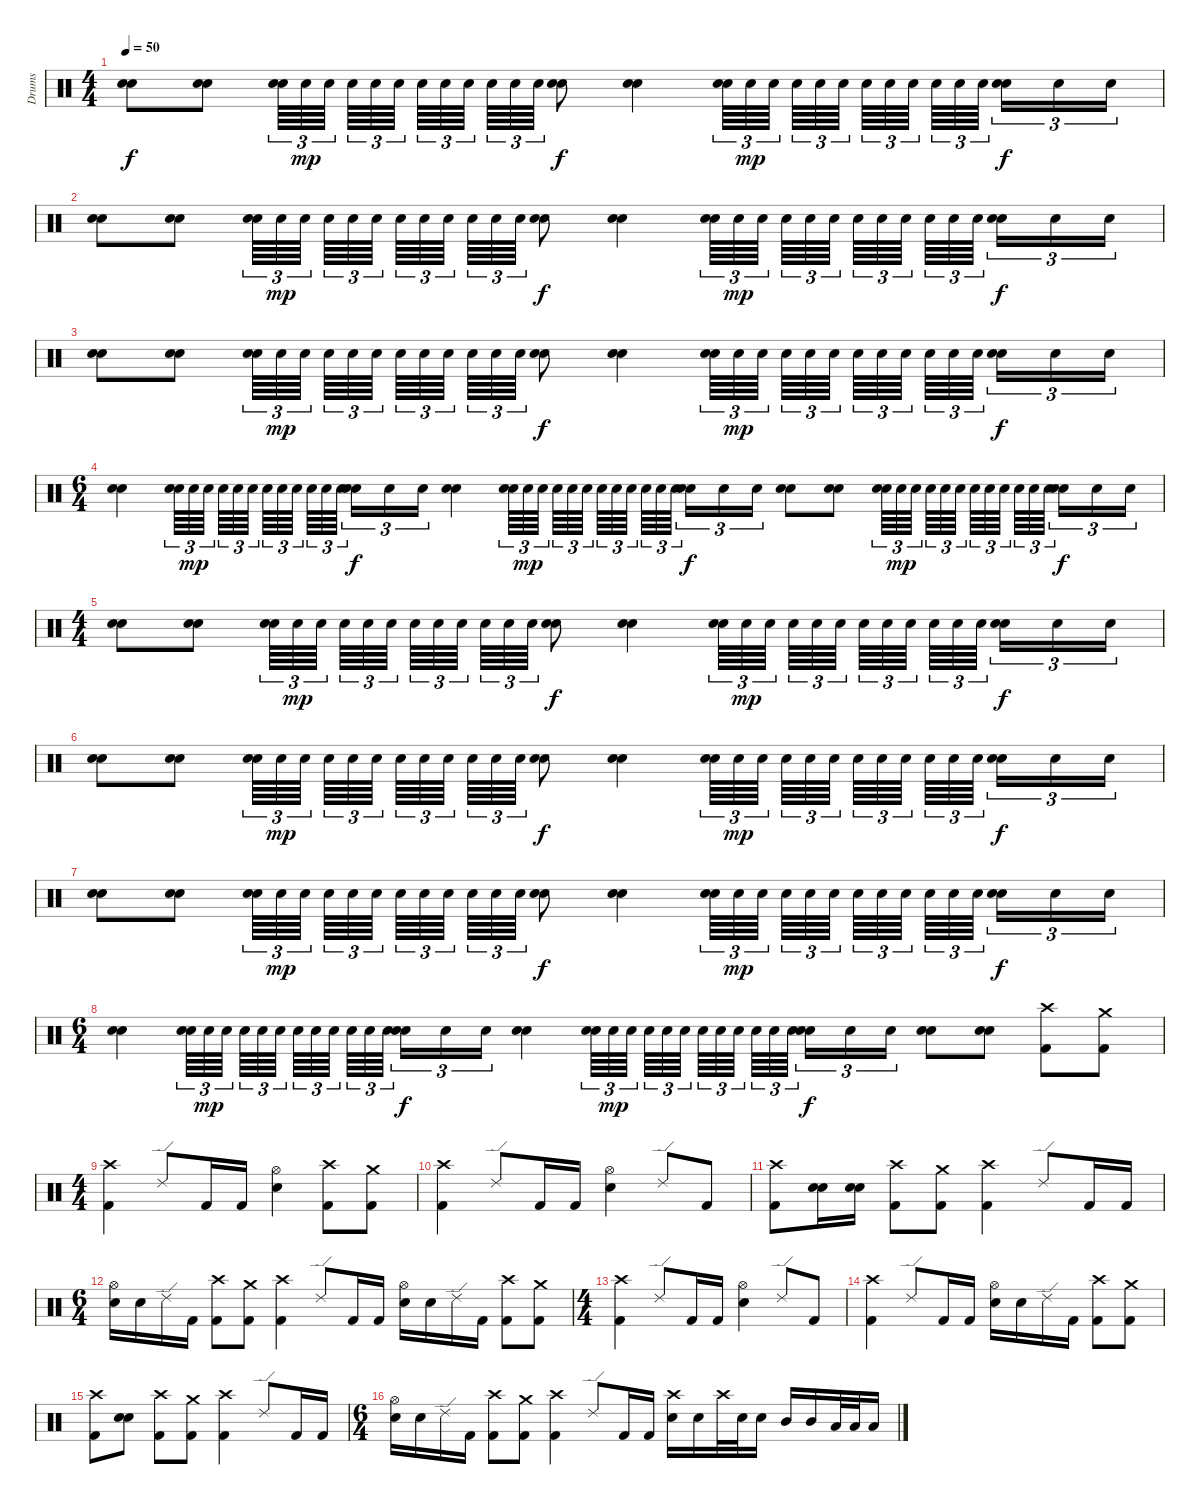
\track ("Drums" "Drums") {instrument percussion}
\staff {score}
\articulation defaults
\ts (4 4)
\tempo 50
\clef neutral
\ks c
("Electric Snare (hit)" "Electric Snare (hit)").8{bu 60 dy f} ("Electric Snare (hit)" "Electric Snare (hit)").8{bu 60} ("Electric Snare (hit)" "Electric Snare (hit)").64{tu (3 2) bu 60} "Electric Snare (hit)".64{tu (3 2) dy mp} "Electric Snare (hit)".64{tu (3 2)} "Electric Snare (hit)".64{tu (3 2)} "Electric Snare (hit)".64{tu (3 2)} "Electric Snare (hit)".64{tu (3 2)} "Electric Snare (hit)".64{tu (3 2)} "Electric Snare (hit)".64{tu (3 2)} "Electric Snare (hit)".64{tu (3 2)} "Electric Snare (hit)".64{tu (3 2)} "Electric Snare (hit)".64{tu (3 2)} "Electric Snare (hit)".64{tu (3 2)} ("Electric Snare (hit)" "Electric Snare (hit)").8{bu 60 dy f} ("Electric Snare (hit)" "Electric Snare (hit)").4{bu 60} ("Electric Snare (hit)" "Electric Snare (hit)").64{tu (3 2) bu 60} "Electric Snare (hit)".64{tu (3 2) dy mp} "Electric Snare (hit)".64{tu (3 2)} "Electric Snare (hit)".64{tu (3 2)} "Electric Snare (hit)".64{tu (3 2)} "Electric Snare (hit)".64{tu (3 2)} "Electric Snare (hit)".64{tu (3 2)} "Electric Snare (hit)".64{tu (3 2)} "Electric Snare (hit)".64{tu (3 2)} "Electric Snare (hit)".64{tu (3 2)} "Electric Snare (hit)".64{tu (3 2)} "Electric Snare (hit)".64{tu (3 2)} ("Electric Snare (hit)" "Electric Snare (hit)").16{tu (3 2) bu 60 dy f} "Electric Snare (hit)".16{tu (3 2)} "Electric Snare (hit)".16{tu (3 2)} |
("Electric Snare (hit)" "Electric Snare (hit)").8{bu 60} ("Electric Snare (hit)" "Electric Snare (hit)").8{bu 60} ("Electric Snare (hit)" "Electric Snare (hit)").64{tu (3 2) bu 60} "Electric Snare (hit)".64{tu (3 2) dy mp} "Electric Snare (hit)".64{tu (3 2)} "Electric Snare (hit)".64{tu (3 2)} "Electric Snare (hit)".64{tu (3 2)} "Electric Snare (hit)".64{tu (3 2)} "Electric Snare (hit)".64{tu (3 2)} "Electric Snare (hit)".64{tu (3 2)} "Electric Snare (hit)".64{tu (3 2)} "Electric Snare (hit)".64{tu (3 2)} "Electric Snare (hit)".64{tu (3 2)} "Electric Snare (hit)".64{tu (3 2)} ("Electric Snare (hit)" "Electric Snare (hit)").8{bu 60 dy f} ("Electric Snare (hit)" "Electric Snare (hit)").4{bu 60} ("Electric Snare (hit)" "Electric Snare (hit)").64{tu (3 2) bu 60} "Electric Snare (hit)".64{tu (3 2) dy mp} "Electric Snare (hit)".64{tu (3 2)} "Electric Snare (hit)".64{tu (3 2)} "Electric Snare (hit)".64{tu (3 2)} "Electric Snare (hit)".64{tu (3 2)} "Electric Snare (hit)".64{tu (3 2)} "Electric Snare (hit)".64{tu (3 2)} "Electric Snare (hit)".64{tu (3 2)} "Electric Snare (hit)".64{tu (3 2)} "Electric Snare (hit)".64{tu (3 2)} "Electric Snare (hit)".64{tu (3 2)} ("Electric Snare (hit)" "Electric Snare (hit)").16{tu (3 2) bu 60 dy f} "Electric Snare (hit)".16{tu (3 2)} "Electric Snare (hit)".16{tu (3 2)} |
("Electric Snare (hit)" "Electric Snare (hit)").8{bu 60} ("Electric Snare (hit)" "Electric Snare (hit)").8{bu 60} ("Electric Snare (hit)" "Electric Snare (hit)").64{tu (3 2) bu 60} "Electric Snare (hit)".64{tu (3 2) dy mp} "Electric Snare (hit)".64{tu (3 2)} "Electric Snare (hit)".64{tu (3 2)} "Electric Snare (hit)".64{tu (3 2)} "Electric Snare (hit)".64{tu (3 2)} "Electric Snare (hit)".64{tu (3 2)} "Electric Snare (hit)".64{tu (3 2)} "Electric Snare (hit)".64{tu (3 2)} "Electric Snare (hit)".64{tu (3 2)} "Electric Snare (hit)".64{tu (3 2)} "Electric Snare (hit)".64{tu (3 2)} ("Electric Snare (hit)" "Electric Snare (hit)").8{bu 60 dy f} ("Electric Snare (hit)" "Electric Snare (hit)").4{bu 60} ("Electric Snare (hit)" "Electric Snare (hit)").64{tu (3 2) bu 60} "Electric Snare (hit)".64{tu (3 2) dy mp} "Electric Snare (hit)".64{tu (3 2)} "Electric Snare (hit)".64{tu (3 2)} "Electric Snare (hit)".64{tu (3 2)} "Electric Snare (hit)".64{tu (3 2)} "Electric Snare (hit)".64{tu (3 2)} "Electric Snare (hit)".64{tu (3 2)} "Electric Snare (hit)".64{tu (3 2)} "Electric Snare (hit)".64{tu (3 2)} "Electric Snare (hit)".64{tu (3 2)} "Electric Snare (hit)".64{tu (3 2)} ("Electric Snare (hit)" "Electric Snare (hit)").16{tu (3 2) bu 60 dy f} "Electric Snare (hit)".16{tu (3 2)} "Electric Snare (hit)".16{tu (3 2)} |
\ts (6 4)
("Electric Snare (hit)" "Electric Snare (hit)").4{bu 60} ("Electric Snare (hit)" "Electric Snare (hit)").64{tu (3 2) bu 60} "Electric Snare (hit)".64{tu (3 2) dy mp} "Electric Snare (hit)".64{tu (3 2)} "Electric Snare (hit)".64{tu (3 2)} "Electric Snare (hit)".64{tu (3 2)} "Electric Snare (hit)".64{tu (3 2)} "Electric Snare (hit)".64{tu (3 2)} "Electric Snare (hit)".64{tu (3 2)} "Electric Snare (hit)".64{tu (3 2)} "Electric Snare (hit)".64{tu (3 2)} "Electric Snare (hit)".64{tu (3 2)} "Electric Snare (hit)".64{tu (3 2)} ("Electric Snare (hit)" "Electric Snare (hit)").16{tu (3 2) bu 60 dy f} "Electric Snare (hit)".16{tu (3 2)} "Electric Snare (hit)".16{tu (3 2)} ("Electric Snare (hit)" "Electric Snare (hit)").4{bu 60} ("Electric Snare (hit)" "Electric Snare (hit)").64{tu (3 2) bu 60} "Electric Snare (hit)".64{tu (3 2) dy mp} "Electric Snare (hit)".64{tu (3 2)} "Electric Snare (hit)".64{tu (3 2)} "Electric Snare (hit)".64{tu (3 2)} "Electric Snare (hit)".64{tu (3 2)} "Electric Snare (hit)".64{tu (3 2)} "Electric Snare (hit)".64{tu (3 2)} "Electric Snare (hit)".64{tu (3 2)} "Electric Snare (hit)".64{tu (3 2)} "Electric Snare (hit)".64{tu (3 2)} "Electric Snare (hit)".64{tu (3 2)} ("Electric Snare (hit)" "Electric Snare (hit)").16{tu (3 2) bu 60 dy f} "Electric Snare (hit)".16{tu (3 2)} "Electric Snare (hit)".16{tu (3 2)} ("Electric Snare (hit)" "Electric Snare (hit)").8{bu 60} ("Electric Snare (hit)" "Electric Snare (hit)").8{bu 60} ("Electric Snare (hit)" "Electric Snare (hit)").64{tu (3 2) bu 60} "Electric Snare (hit)".64{tu (3 2) dy mp} "Electric Snare (hit)".64{tu (3 2)} "Electric Snare (hit)".64{tu (3 2)} "Electric Snare (hit)".64{tu (3 2)} "Electric Snare (hit)".64{tu (3 2)} "Electric Snare (hit)".64{tu (3 2)} "Electric Snare (hit)".64{tu (3 2)} "Electric Snare (hit)".64{tu (3 2)} "Electric Snare (hit)".64{tu (3 2)} "Electric Snare (hit)".64{tu (3 2)} "Electric Snare (hit)".64{tu (3 2)} ("Electric Snare (hit)" "Electric Snare (hit)").16{tu (3 2) bu 60 dy f} "Electric Snare (hit)".16{tu (3 2)} "Electric Snare (hit)".16{tu (3 2)} |
\ts (4 4)
("Electric Snare (hit)" "Electric Snare (hit)").8{bu 60} ("Electric Snare (hit)" "Electric Snare (hit)").8{bu 60} ("Electric Snare (hit)" "Electric Snare (hit)").64{tu (3 2) bu 60} "Electric Snare (hit)".64{tu (3 2) dy mp} "Electric Snare (hit)".64{tu (3 2)} "Electric Snare (hit)".64{tu (3 2)} "Electric Snare (hit)".64{tu (3 2)} "Electric Snare (hit)".64{tu (3 2)} "Electric Snare (hit)".64{tu (3 2)} "Electric Snare (hit)".64{tu (3 2)} "Electric Snare (hit)".64{tu (3 2)} "Electric Snare (hit)".64{tu (3 2)} "Electric Snare (hit)".64{tu (3 2)} "Electric Snare (hit)".64{tu (3 2)} ("Electric Snare (hit)" "Electric Snare (hit)").8{bu 60 dy f} ("Electric Snare (hit)" "Electric Snare (hit)").4{bu 60} ("Electric Snare (hit)" "Electric Snare (hit)").64{tu (3 2) bu 60} "Electric Snare (hit)".64{tu (3 2) dy mp} "Electric Snare (hit)".64{tu (3 2)} "Electric Snare (hit)".64{tu (3 2)} "Electric Snare (hit)".64{tu (3 2)} "Electric Snare (hit)".64{tu (3 2)} "Electric Snare (hit)".64{tu (3 2)} "Electric Snare (hit)".64{tu (3 2)} "Electric Snare (hit)".64{tu (3 2)} "Electric Snare (hit)".64{tu (3 2)} "Electric Snare (hit)".64{tu (3 2)} "Electric Snare (hit)".64{tu (3 2)} ("Electric Snare (hit)" "Electric Snare (hit)").16{tu (3 2) bu 60 dy f} "Electric Snare (hit)".16{tu (3 2)} "Electric Snare (hit)".16{tu (3 2)} |
("Electric Snare (hit)" "Electric Snare (hit)").8{bu 60} ("Electric Snare (hit)" "Electric Snare (hit)").8{bu 60} ("Electric Snare (hit)" "Electric Snare (hit)").64{tu (3 2) bu 60} "Electric Snare (hit)".64{tu (3 2) dy mp} "Electric Snare (hit)".64{tu (3 2)} "Electric Snare (hit)".64{tu (3 2)} "Electric Snare (hit)".64{tu (3 2)} "Electric Snare (hit)".64{tu (3 2)} "Electric Snare (hit)".64{tu (3 2)} "Electric Snare (hit)".64{tu (3 2)} "Electric Snare (hit)".64{tu (3 2)} "Electric Snare (hit)".64{tu (3 2)} "Electric Snare (hit)".64{tu (3 2)} "Electric Snare (hit)".64{tu (3 2)} ("Electric Snare (hit)" "Electric Snare (hit)").8{bu 60 dy f} ("Electric Snare (hit)" "Electric Snare (hit)").4{bu 60} ("Electric Snare (hit)" "Electric Snare (hit)").64{tu (3 2) bu 60} "Electric Snare (hit)".64{tu (3 2) dy mp} "Electric Snare (hit)".64{tu (3 2)} "Electric Snare (hit)".64{tu (3 2)} "Electric Snare (hit)".64{tu (3 2)} "Electric Snare (hit)".64{tu (3 2)} "Electric Snare (hit)".64{tu (3 2)} "Electric Snare (hit)".64{tu (3 2)} "Electric Snare (hit)".64{tu (3 2)} "Electric Snare (hit)".64{tu (3 2)} "Electric Snare (hit)".64{tu (3 2)} "Electric Snare (hit)".64{tu (3 2)} ("Electric Snare (hit)" "Electric Snare (hit)").16{tu (3 2) bu 60 dy f} "Electric Snare (hit)".16{tu (3 2)} "Electric Snare (hit)".16{tu (3 2)} |
("Electric Snare (hit)" "Electric Snare (hit)").8{bu 60} ("Electric Snare (hit)" "Electric Snare (hit)").8{bu 60} ("Electric Snare (hit)" "Electric Snare (hit)").64{tu (3 2) bu 60} "Electric Snare (hit)".64{tu (3 2) dy mp} "Electric Snare (hit)".64{tu (3 2)} "Electric Snare (hit)".64{tu (3 2)} "Electric Snare (hit)".64{tu (3 2)} "Electric Snare (hit)".64{tu (3 2)} "Electric Snare (hit)".64{tu (3 2)} "Electric Snare (hit)".64{tu (3 2)} "Electric Snare (hit)".64{tu (3 2)} "Electric Snare (hit)".64{tu (3 2)} "Electric Snare (hit)".64{tu (3 2)} "Electric Snare (hit)".64{tu (3 2)} ("Electric Snare (hit)" "Electric Snare (hit)").8{bu 60 dy f} ("Electric Snare (hit)" "Electric Snare (hit)").4{bu 60} ("Electric Snare (hit)" "Electric Snare (hit)").64{tu (3 2) bu 60} "Electric Snare (hit)".64{tu (3 2) dy mp} "Electric Snare (hit)".64{tu (3 2)} "Electric Snare (hit)".64{tu (3 2)} "Electric Snare (hit)".64{tu (3 2)} "Electric Snare (hit)".64{tu (3 2)} "Electric Snare (hit)".64{tu (3 2)} "Electric Snare (hit)".64{tu (3 2)} "Electric Snare (hit)".64{tu (3 2)} "Electric Snare (hit)".64{tu (3 2)} "Electric Snare (hit)".64{tu (3 2)} "Electric Snare (hit)".64{tu (3 2)} ("Electric Snare (hit)" "Electric Snare (hit)").16{tu (3 2) bu 60 dy f} "Electric Snare (hit)".16{tu (3 2)} "Electric Snare (hit)".16{tu (3 2)} |
\ts (6 4)
("Electric Snare (hit)" "Electric Snare (hit)").4{bu 60} ("Electric Snare (hit)" "Electric Snare (hit)").64{tu (3 2) bu 60} "Electric Snare (hit)".64{tu (3 2) dy mp} "Electric Snare (hit)".64{tu (3 2)} "Electric Snare (hit)".64{tu (3 2)} "Electric Snare (hit)".64{tu (3 2)} "Electric Snare (hit)".64{tu (3 2)} "Electric Snare (hit)".64{tu (3 2)} "Electric Snare (hit)".64{tu (3 2)} "Electric Snare (hit)".64{tu (3 2)} "Electric Snare (hit)".64{tu (3 2)} "Electric Snare (hit)".64{tu (3 2)} "Electric Snare (hit)".64{tu (3 2)} ("Electric Snare (hit)" "Electric Snare (hit)").16{tu (3 2) bu 60 dy f} "Electric Snare (hit)".16{tu (3 2)} "Electric Snare (hit)".16{tu (3 2)} ("Electric Snare (hit)" "Electric Snare (hit)").4{bu 60} ("Electric Snare (hit)" "Electric Snare (hit)").64{tu (3 2) bu 60} "Electric Snare (hit)".64{tu (3 2) dy mp} "Electric Snare (hit)".64{tu (3 2)} "Electric Snare (hit)".64{tu (3 2)} "Electric Snare (hit)".64{tu (3 2)} "Electric Snare (hit)".64{tu (3 2)} "Electric Snare (hit)".64{tu (3 2)} "Electric Snare (hit)".64{tu (3 2)} "Electric Snare (hit)".64{tu (3 2)} "Electric Snare (hit)".64{tu (3 2)} "Electric Snare (hit)".64{tu (3 2)} "Electric Snare (hit)".64{tu (3 2)} ("Electric Snare (hit)" "Electric Snare (hit)").16{tu (3 2) bu 60 dy f} "Electric Snare (hit)".16{tu (3 2)} "Electric Snare (hit)".16{tu (3 2)} ("Electric Snare (hit)" "Electric Snare (hit)").8{bu 60} ("Electric Snare (hit)" "Electric Snare (hit)").8{bu 60} ("Crash high (hit)" "Kick (hit) 2").8{volume 16} ("Crash medium (hit)" "Kick (hit) 2").8 |
\ts (4 4)
("Crash high (hit)" "Kick (hit) 2").4 "Ride (edge) 2".8 "Kick (hit) 2".16 "Kick (hit) 2".16 ("Hi-Hat (open)" "Electric Snare (hit)").4 ("Crash high (hit)" "Kick (hit) 2").8 ("Crash medium (hit)" "Kick (hit) 2").8 |
("Crash high (hit)" "Kick (hit) 2").4 "Ride (edge) 2".8 "Kick (hit) 2".16 "Kick (hit) 2".16 ("Hi-Hat (open)" "Electric Snare (hit)").4 "Ride (edge) 2".8 "Kick (hit) 2".8 |
("Crash high (hit)" "Kick (hit) 2").8 ("Electric Snare (hit)" "Electric Snare (hit)").16{bu 60} ("Electric Snare (hit)" "Electric Snare (hit)").16{bu 60} ("Crash high (hit)" "Kick (hit) 2").8 ("Crash medium (hit)" "Kick (hit) 2").8 ("Crash high (hit)" "Kick (hit) 2").4 "Ride (edge) 2".8 "Kick (hit) 2".16 "Kick (hit) 2".16 |
\ts (6 4)
("Hi-Hat (open)" "Electric Snare (hit)").16 "Electric Snare (hit)".16 "Ride (edge) 2".16 "Kick (hit) 2".16 ("Crash high (hit)" "Kick (hit) 2").8 ("Crash medium (hit)" "Kick (hit) 2").8 ("Crash high (hit)" "Kick (hit) 2").4 "Ride (edge) 2".8 "Kick (hit) 2".16 "Kick (hit) 2".16 ("Hi-Hat (open)" "Electric Snare (hit)").16 "Electric Snare (hit)".16 "Ride (edge) 2".16 "Kick (hit) 2".16 ("Crash high (hit)" "Kick (hit) 2").8 ("Crash medium (hit)" "Kick (hit) 2").8 |
\ts (4 4)
("Crash high (hit)" "Kick (hit) 2").4 "Ride (edge) 2".8 "Kick (hit) 2".16 "Kick (hit) 2".16 ("Hi-Hat (open)" "Electric Snare (hit)").4 "Ride (edge) 2".8 "Kick (hit) 2".8 |
("Crash high (hit)" "Kick (hit) 2").4 "Ride (edge) 2".8 "Kick (hit) 2".16 "Kick (hit) 2".16 ("Hi-Hat (open)" "Electric Snare (hit)").16 "Electric Snare (hit)".16 "Ride (edge) 2".16 "Kick (hit) 2".16 ("Crash high (hit)" "Kick (hit) 2").8 ("Crash medium (hit)" "Kick (hit) 2").8 |
("Crash high (hit)" "Kick (hit) 2").8 ("Electric Snare (hit)" "Electric Snare (hit)").8{bu 60} ("Crash high (hit)" "Kick (hit) 2").8 ("Crash medium (hit)" "Kick (hit) 2").8 ("Crash high (hit)" "Kick (hit) 2").4 "Ride (edge) 2".8 "Kick (hit) 2".16 "Kick (hit) 2".16 |
\ts (6 4)
("Hi-Hat (open)" "Electric Snare (hit)").16 "Electric Snare (hit)".16 "Ride (edge) 2".16 "Kick (hit) 2".16 ("Crash high (hit)" "Kick (hit) 2").8 ("Crash medium (hit)" "Kick (hit) 2").8 ("Crash high (hit)" "Kick (hit) 2").4 "Ride (edge) 2".8 "Kick (hit) 2".16 "Kick (hit) 2".16 ("Crash high (hit)" "Electric Snare (hit)").16 "Electric Snare (hit)".16 "Crash high (hit)".32 "Electric Snare (hit)".32 "Electric Snare (hit)".16 "Mid Tom (hit)".16 "Mid Tom (hit)".16 "Low Tom (hit)".32 "Low Tom (hit)".32 "Low Tom (hit)".16
